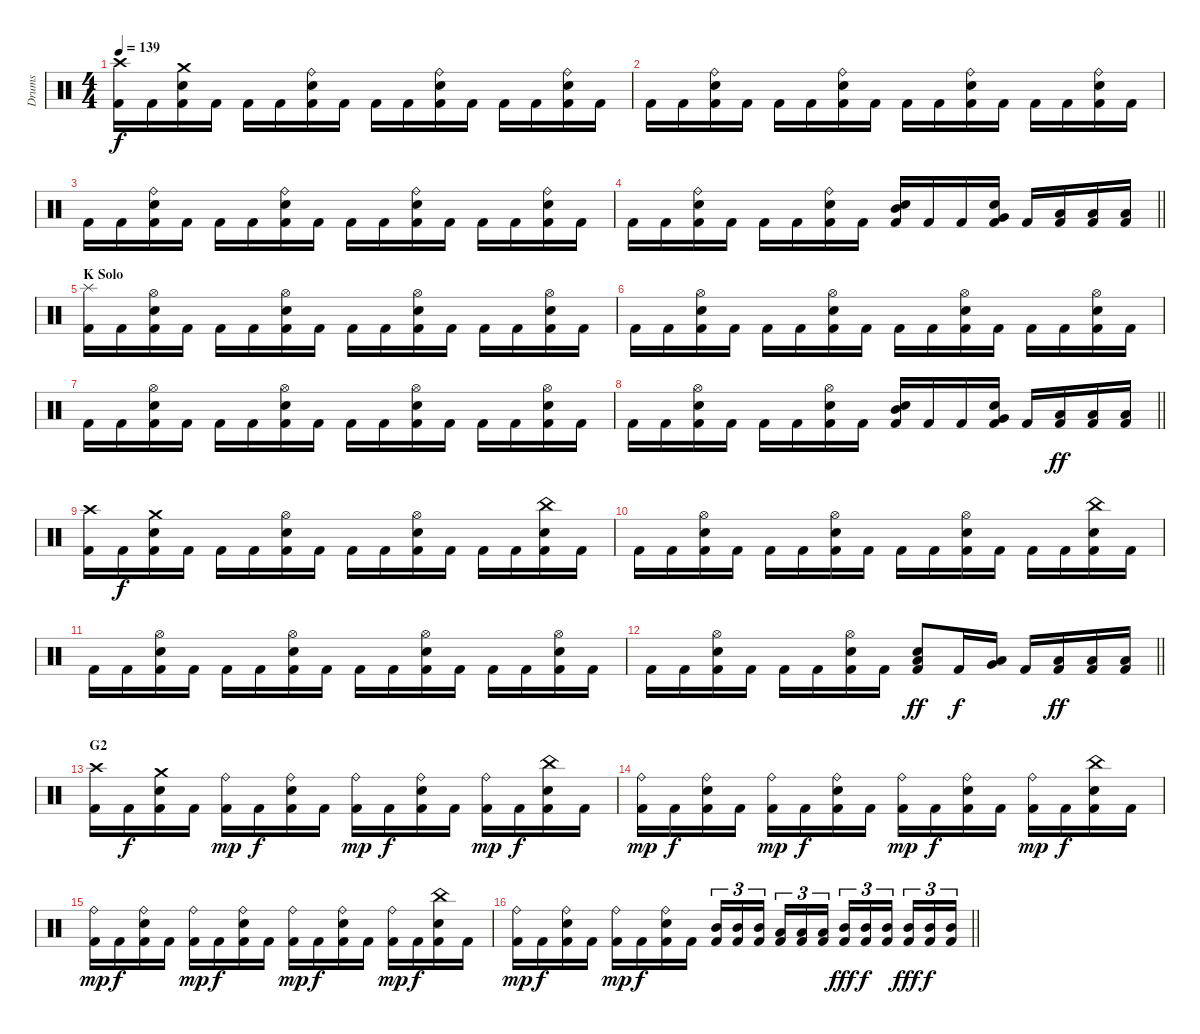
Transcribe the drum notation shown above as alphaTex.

\track ("Drums" "Drums") {instrument percussion}
\staff {score}
\articulation defaults
\ts (4 4)
\tempo 139
\clef neutral
\ks c
("Crash high (hit)" "Kick (hit) 2").16{dy f} "Kick (hit) 2".16 ("Crash medium (hit)" "Electric Snare (hit)" "Kick (hit) 2").16 "Kick (hit) 2".16 "Kick (hit) 2".16 "Kick (hit) 2".16 ("Ride (bell)" "Electric Snare (hit)" "Kick (hit) 2").16 "Kick (hit) 2".16 "Kick (hit) 2".16 "Kick (hit) 2".16 ("Ride (bell)" "Electric Snare (hit)" "Kick (hit) 2").16 "Kick (hit) 2".16 "Kick (hit) 2".16 "Kick (hit) 2".16 ("Ride (bell)" "Electric Snare (hit)" "Kick (hit) 2").16 "Kick (hit) 2".16 |
"Kick (hit) 2".16 "Kick (hit) 2".16 ("Ride (bell)" "Electric Snare (hit)" "Kick (hit) 2").16 "Kick (hit) 2".16 "Kick (hit) 2".16 "Kick (hit) 2".16 ("Ride (bell)" "Electric Snare (hit)" "Kick (hit) 2").16 "Kick (hit) 2".16 "Kick (hit) 2".16 "Kick (hit) 2".16 ("Ride (bell)" "Electric Snare (hit)" "Kick (hit) 2").16 "Kick (hit) 2".16 "Kick (hit) 2".16 "Kick (hit) 2".16 ("Ride (bell)" "Electric Snare (hit)" "Kick (hit) 2").16 "Kick (hit) 2".16 |
"Kick (hit) 2".16 "Kick (hit) 2".16 ("Ride (bell)" "Electric Snare (hit)" "Kick (hit) 2").16 "Kick (hit) 2".16 "Kick (hit) 2".16 "Kick (hit) 2".16 ("Ride (bell)" "Electric Snare (hit)" "Kick (hit) 2").16 "Kick (hit) 2".16 "Kick (hit) 2".16 "Kick (hit) 2".16 ("Ride (bell)" "Electric Snare (hit)" "Kick (hit) 2").16 "Kick (hit) 2".16 "Kick (hit) 2".16 "Kick (hit) 2".16 ("Ride (bell)" "Electric Snare (hit)" "Kick (hit) 2").16 "Kick (hit) 2".16 |
\barLineRight lightlight "Kick (hit) 2".16 "Kick (hit) 2".16
("Ride (bell)" "Electric Snare (hit)" "Kick (hit) 2").16 "Kick (hit) 2".16 "Kick (hit) 2".16 "Kick (hit) 2".16 ("Ride (bell)" "Electric Snare (hit)" "Kick (hit) 2").16 "Kick (hit) 2".16 ("Electric Snare (hit)" "Mid Tom (hit)" "Kick (hit) 2").16 "Kick (hit) 2".16 "Kick (hit) 2".16 ("Electric Snare (hit)" "Very Low Tom (hit)" "Kick (hit) 2").16 "Kick (hit) 2".16 ("Low Tom (hit)" "Kick (hit) 2").16 ("Low Tom (hit)" "Kick (hit) 2").16 ("Low Tom (hit)" "Kick (hit) 2").16 |
\section ("" "K Solo")
("Splash (hit)" "Kick (hit) 2").16 "Kick (hit) 2".16 ("Hi-Hat (open)" "Electric Snare (hit)" "Kick (hit) 2").16 "Kick (hit) 2".16 "Kick (hit) 2".16 "Kick (hit) 2".16 ("Hi-Hat (open)" "Electric Snare (hit)" "Kick (hit) 2").16 "Kick (hit) 2".16 "Kick (hit) 2".16 "Kick (hit) 2".16 ("Hi-Hat (open)" "Electric Snare (hit)" "Kick (hit) 2").16 "Kick (hit) 2".16 "Kick (hit) 2".16 "Kick (hit) 2".16 ("Hi-Hat (open)" "Electric Snare (hit)" "Kick (hit) 2").16 "Kick (hit) 2".16 |
"Kick (hit) 2".16 "Kick (hit) 2".16 ("Hi-Hat (open)" "Electric Snare (hit)" "Kick (hit) 2").16 "Kick (hit) 2".16 "Kick (hit) 2".16 "Kick (hit) 2".16 ("Hi-Hat (open)" "Electric Snare (hit)" "Kick (hit) 2").16 "Kick (hit) 2".16 "Kick (hit) 2".16 "Kick (hit) 2".16 ("Hi-Hat (open)" "Electric Snare (hit)" "Kick (hit) 2").16 "Kick (hit) 2".16 "Kick (hit) 2".16 "Kick (hit) 2".16 ("Hi-Hat (open)" "Electric Snare (hit)" "Kick (hit) 2").16 "Kick (hit) 2".16 |
"Kick (hit) 2".16 "Kick (hit) 2".16 ("Hi-Hat (open)" "Electric Snare (hit)" "Kick (hit) 2").16 "Kick (hit) 2".16 "Kick (hit) 2".16 "Kick (hit) 2".16 ("Hi-Hat (open)" "Electric Snare (hit)" "Kick (hit) 2").16 "Kick (hit) 2".16 "Kick (hit) 2".16 "Kick (hit) 2".16 ("Hi-Hat (open)" "Electric Snare (hit)" "Kick (hit) 2").16 "Kick (hit) 2".16 "Kick (hit) 2".16 "Kick (hit) 2".16 ("Hi-Hat (open)" "Electric Snare (hit)" "Kick (hit) 2").16 "Kick (hit) 2".16 |
\barLineRight lightlight "Kick (hit) 2".16 "Kick (hit) 2".16
("Hi-Hat (open)" "Electric Snare (hit)" "Kick (hit) 2").16 "Kick (hit) 2".16 "Kick (hit) 2".16 "Kick (hit) 2".16 ("Hi-Hat (open)" "Electric Snare (hit)" "Kick (hit) 2").16 "Kick (hit) 2".16 ("Electric Snare (hit)" "Mid Tom (hit)" "Kick (hit) 2").16 "Kick (hit) 2".16 "Kick (hit) 2".16 ("Electric Snare (hit)" "Very Low Tom (hit)" "Kick (hit) 2").16 "Kick (hit) 2".16 ("Low Tom (hit)" "Kick (hit) 2").16{dy ff} ("Low Tom (hit)" "Kick (hit) 2").16 ("Low Tom (hit)" "Kick (hit) 2").16 |
("Crash high (hit)" "Kick (hit) 2").16 "Kick (hit) 2".16{dy f} ("Crash medium (hit)" "Electric Snare (hit)" "Kick (hit) 2").16 "Kick (hit) 2".16 "Kick (hit) 2".16 "Kick (hit) 2".16 ("Hi-Hat (open)" "Electric Snare (hit)" "Kick (hit) 2").16 "Kick (hit) 2".16 "Kick (hit) 2".16 "Kick (hit) 2".16 ("Hi-Hat (open)" "Electric Snare (hit)" "Kick (hit) 2").16 "Kick (hit) 2".16 "Kick (hit) 2".16 "Kick (hit) 2".16 ("China (hit)" "Electric Snare (hit)" "Kick (hit) 2").16 "Kick (hit) 2".16 |
"Kick (hit) 2".16 "Kick (hit) 2".16 ("Hi-Hat (open)" "Electric Snare (hit)" "Kick (hit) 2").16 "Kick (hit) 2".16 "Kick (hit) 2".16 "Kick (hit) 2".16 ("Hi-Hat (open)" "Electric Snare (hit)" "Kick (hit) 2").16 "Kick (hit) 2".16 "Kick (hit) 2".16 "Kick (hit) 2".16 ("Hi-Hat (open)" "Electric Snare (hit)" "Kick (hit) 2").16 "Kick (hit) 2".16 "Kick (hit) 2".16 "Kick (hit) 2".16 ("China (hit)" "Electric Snare (hit)" "Kick (hit) 2").16 "Kick (hit) 2".16 |
"Kick (hit) 2".16 "Kick (hit) 2".16 ("Hi-Hat (open)" "Electric Snare (hit)" "Kick (hit) 2").16 "Kick (hit) 2".16 "Kick (hit) 2".16 "Kick (hit) 2".16 ("Hi-Hat (open)" "Electric Snare (hit)" "Kick (hit) 2").16 "Kick (hit) 2".16 "Kick (hit) 2".16 "Kick (hit) 2".16 ("Hi-Hat (open)" "Electric Snare (hit)" "Kick (hit) 2").16 "Kick (hit) 2".16 "Kick (hit) 2".16 "Kick (hit) 2".16 ("Hi-Hat (open)" "Electric Snare (hit)" "Kick (hit) 2").16 "Kick (hit) 2".16 |
\barLineRight lightlight "Kick (hit) 2".16 "Kick (hit) 2".16
("Hi-Hat (open)" "Electric Snare (hit)" "Kick (hit) 2").16 "Kick (hit) 2".16 "Kick (hit) 2".16 "Kick (hit) 2".16 ("Hi-Hat (open)" "Electric Snare (hit)" "Kick (hit) 2").16 "Kick (hit) 2".16 ("Low Tom (hit)" "Electric Snare (hit)" "Kick (hit) 2").8{dy ff} "Kick (hit) 2".16{dy f} ("Very Low Tom (hit)" "Low Floor Tom (hit)").16 "Kick (hit) 2".16 ("Low Floor Tom (hit)" "Kick (hit) 2").16{dy ff} ("Low Floor Tom (hit)" "Kick (hit) 2").16 ("Low Floor Tom (hit)" "Kick (hit) 2").16 |
\section ("" "G2")
("Crash high (hit)" "Kick (hit) 2").16 "Kick (hit) 2".16{dy f} ("Crash medium (hit)" "Electric Snare (hit)" "Kick (hit) 2").16 "Kick (hit) 2".16 ("Ride (bell)" "Kick (hit) 2").16{dy mp} "Kick (hit) 2".16{dy f} ("Ride (bell)" "Electric Snare (hit)" "Kick (hit) 2").16 "Kick (hit) 2".16 ("Ride (bell)" "Kick (hit) 2").16{dy mp} "Kick (hit) 2".16{dy f} ("Ride (bell)" "Electric Snare (hit)" "Kick (hit) 2").16 "Kick (hit) 2".16 ("Ride (bell)" "Kick (hit) 2").16{dy mp} "Kick (hit) 2".16{dy f} ("China (hit)" "Electric Snare (hit)" "Kick (hit) 2").16 "Kick (hit) 2".16 |
("Ride (bell)" "Kick (hit) 2").16{dy mp} "Kick (hit) 2".16{dy f} ("Ride (bell)" "Electric Snare (hit)" "Kick (hit) 2").16 "Kick (hit) 2".16 ("Ride (bell)" "Kick (hit) 2").16{dy mp} "Kick (hit) 2".16{dy f} ("Ride (bell)" "Electric Snare (hit)" "Kick (hit) 2").16 "Kick (hit) 2".16 ("Ride (bell)" "Kick (hit) 2").16{dy mp} "Kick (hit) 2".16{dy f} ("Ride (bell)" "Electric Snare (hit)" "Kick (hit) 2").16 "Kick (hit) 2".16 ("Ride (bell)" "Kick (hit) 2").16{dy mp} "Kick (hit) 2".16{dy f} ("China (hit)" "Electric Snare (hit)" "Kick (hit) 2").16 "Kick (hit) 2".16 |
("Ride (bell)" "Kick (hit) 2").16{dy mp} "Kick (hit) 2".16{dy f} ("Ride (bell)" "Electric Snare (hit)" "Kick (hit) 2").16 "Kick (hit) 2".16 ("Ride (bell)" "Kick (hit) 2").16{dy mp} "Kick (hit) 2".16{dy f} ("Ride (bell)" "Electric Snare (hit)" "Kick (hit) 2").16 "Kick (hit) 2".16 ("Ride (bell)" "Kick (hit) 2").16{dy mp} "Kick (hit) 2".16{dy f} ("Ride (bell)" "Electric Snare (hit)" "Kick (hit) 2").16 "Kick (hit) 2".16 ("Ride (bell)" "Kick (hit) 2").16{dy mp} "Kick (hit) 2".16{dy f} ("China (hit)" "Electric Snare (hit)" "Kick (hit) 2").16 "Kick (hit) 2".16 |
\barLineRight lightlight
("Ride (bell)" "Kick (hit) 2").16{dy mp} "Kick (hit) 2".16{dy f} ("Ride (bell)" "Electric Snare (hit)" "Kick (hit) 2").16 "Kick (hit) 2".16 ("Ride (bell)" "Kick (hit) 2").16{dy mp} "Kick (hit) 2".16{dy f} ("Ride (bell)" "Electric Snare (hit)" "Kick (hit) 2").16 "Kick (hit) 2".16 ("Mid Tom (hit)" "Kick (hit) 2").16{tu (3 2)} ("Mid Tom (hit)" "Kick (hit) 2").16{tu (3 2)} ("Mid Tom (hit)" "Kick (hit) 2").16{tu (3 2) beam splitsecondary} ("Low Tom (hit)" "Kick (hit) 2").16{tu (3 2)} ("Low Tom (hit)" "Kick (hit) 2").16{tu (3 2)} ("Low Tom (hit)" "Kick (hit) 2").16{tu (3 2)} ("Mid Tom (hit)" "Kick (hit) 2").16{tu (3 2) dy fff} ("Mid Tom (hit)" "Kick (hit) 2").16{tu (3 2) dy f} ("Mid Tom (hit)" "Kick (hit) 2").16{tu (3 2) beam splitsecondary} ("Mid Tom (hit)" "Kick (hit) 2").16{tu (3 2) dy fff} ("Mid Tom (hit)" "Kick (hit) 2").16{tu (3 2) dy f} ("Mid Tom (hit)" "Kick (hit) 2").16{tu (3 2)}
